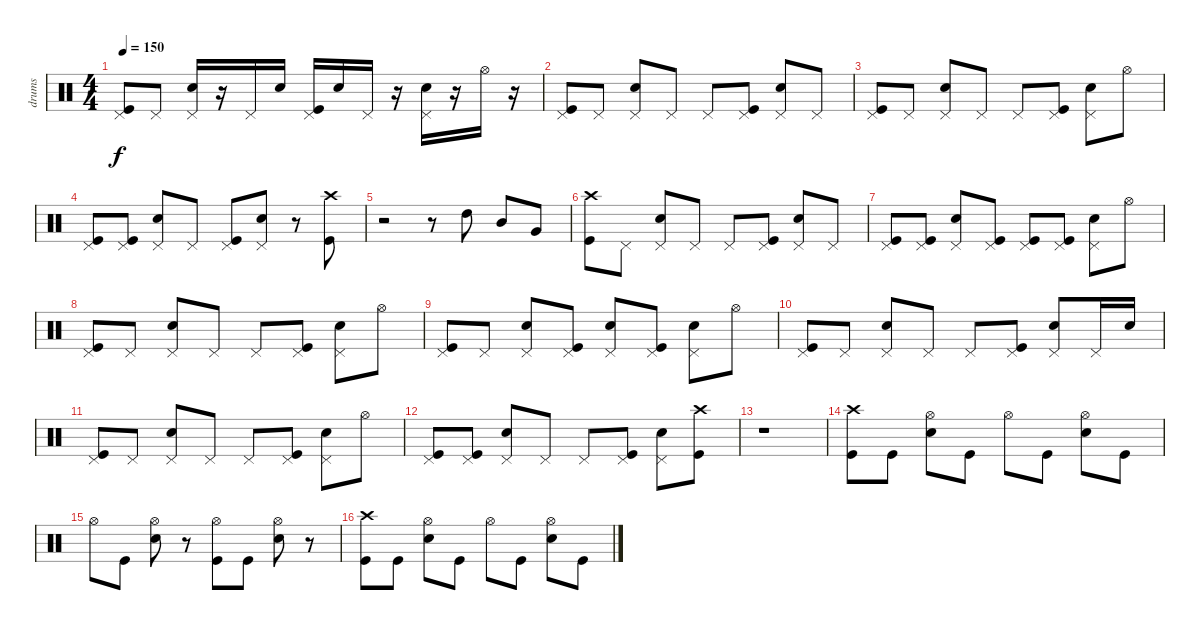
\track ("drums" "drums") {instrument percussion}
\staff {score}
\articulation defaults
\ts (4 4)
\tempo 150
\clef neutral
\ks c
("Pedal Hi-Hat (hit)" "Kick (hit)").8{dy f} "Pedal Hi-Hat (hit)".8 ("Pedal Hi-Hat (hit)" "Electric Snare (hit)").16 r.16 "Pedal Hi-Hat (hit)".16 "Electric Snare (hit)".16 ("Pedal Hi-Hat (hit)" "Kick (hit)").16 "Electric Snare (hit)".16 "Pedal Hi-Hat (hit)".16 r.16 ("Pedal Hi-Hat (hit)" "Electric Snare (hit)").16 r.16 "Hi-Hat (open)".16 r.16 |
("Pedal Hi-Hat (hit)" "Kick (hit)").8 "Pedal Hi-Hat (hit)".8 ("Pedal Hi-Hat (hit)" "Electric Snare (hit)").8 "Pedal Hi-Hat (hit)".8 "Pedal Hi-Hat (hit)".8 ("Pedal Hi-Hat (hit)" "Kick (hit)").8 ("Pedal Hi-Hat (hit)" "Electric Snare (hit)").8 "Pedal Hi-Hat (hit)".8 |
("Pedal Hi-Hat (hit)" "Kick (hit)").8 "Pedal Hi-Hat (hit)".8 ("Pedal Hi-Hat (hit)" "Electric Snare (hit)").8 "Pedal Hi-Hat (hit)".8 "Pedal Hi-Hat (hit)".8 ("Pedal Hi-Hat (hit)" "Kick (hit)").8 ("Pedal Hi-Hat (hit)" "Electric Snare (hit)").8 "Hi-Hat (open)".8 |
("Pedal Hi-Hat (hit)" "Kick (hit)").8 ("Pedal Hi-Hat (hit)" "Kick (hit)").8 ("Pedal Hi-Hat (hit)" "Electric Snare (hit)").8 "Pedal Hi-Hat (hit)".8 ("Pedal Hi-Hat (hit)" "Kick (hit)").8 ("Pedal Hi-Hat (hit)" "Electric Snare (hit)").8 r.8 ("Crash high (hit)" "Kick (hit)").8 |
r.2 r.8 "High Tom (hit)".8 "Mid Tom (hit)".8 "Very Low Tom (hit)".8 |
("Crash high (hit)" "Kick (hit)").8 "Pedal Hi-Hat (hit)".8 ("Pedal Hi-Hat (hit)" "Electric Snare (hit)").8 "Pedal Hi-Hat (hit)".8 "Pedal Hi-Hat (hit)".8 ("Pedal Hi-Hat (hit)" "Kick (hit)").8 ("Pedal Hi-Hat (hit)" "Electric Snare (hit)").8 "Pedal Hi-Hat (hit)".8 |
("Pedal Hi-Hat (hit)" "Kick (hit)").8 ("Pedal Hi-Hat (hit)" "Kick (hit)").8 ("Pedal Hi-Hat (hit)" "Electric Snare (hit)").8 ("Pedal Hi-Hat (hit)" "Kick (hit)").8 ("Pedal Hi-Hat (hit)" "Kick (hit)").8 ("Pedal Hi-Hat (hit)" "Kick (hit)").8 ("Pedal Hi-Hat (hit)" "Electric Snare (hit)").8 "Hi-Hat (open)".8 |
("Pedal Hi-Hat (hit)" "Kick (hit)").8 "Pedal Hi-Hat (hit)".8 ("Pedal Hi-Hat (hit)" "Electric Snare (hit)").8 "Pedal Hi-Hat (hit)".8 "Pedal Hi-Hat (hit)".8 ("Pedal Hi-Hat (hit)" "Kick (hit)").8 ("Pedal Hi-Hat (hit)" "Electric Snare (hit)").8 "Hi-Hat (open)".8 |
("Pedal Hi-Hat (hit)" "Kick (hit)").8 "Pedal Hi-Hat (hit)".8 ("Pedal Hi-Hat (hit)" "Electric Snare (hit)").8 ("Pedal Hi-Hat (hit)" "Kick (hit)").8 ("Pedal Hi-Hat (hit)" "Electric Snare (hit)").8 ("Pedal Hi-Hat (hit)" "Kick (hit)").8 ("Pedal Hi-Hat (hit)" "Electric Snare (hit)").8 "Hi-Hat (open)".8 |
("Pedal Hi-Hat (hit)" "Kick (hit)").8 "Pedal Hi-Hat (hit)".8 ("Pedal Hi-Hat (hit)" "Electric Snare (hit)").8 "Pedal Hi-Hat (hit)".8 "Pedal Hi-Hat (hit)".8 ("Pedal Hi-Hat (hit)" "Kick (hit)").8 ("Pedal Hi-Hat (hit)" "Electric Snare (hit)").8 "Pedal Hi-Hat (hit)".16 "Electric Snare (hit)".16 |
("Pedal Hi-Hat (hit)" "Kick (hit)").8 "Pedal Hi-Hat (hit)".8 ("Pedal Hi-Hat (hit)" "Electric Snare (hit)").8 "Pedal Hi-Hat (hit)".8 "Pedal Hi-Hat (hit)".8 ("Pedal Hi-Hat (hit)" "Kick (hit)").8 ("Pedal Hi-Hat (hit)" "Electric Snare (hit)").8 "Hi-Hat (open)".8 |
("Pedal Hi-Hat (hit)" "Kick (hit)").8 ("Pedal Hi-Hat (hit)" "Kick (hit)").8 ("Pedal Hi-Hat (hit)" "Electric Snare (hit)").8 "Pedal Hi-Hat (hit)".8 "Pedal Hi-Hat (hit)".8 ("Pedal Hi-Hat (hit)" "Kick (hit)").8 ("Pedal Hi-Hat (hit)" "Electric Snare (hit)").8 ("Crash high (hit)" "Kick (hit)").8 |
r.1 |
("Crash high (hit)" "Kick (hit)").8 "Kick (hit)".8 ("Hi-Hat (open)" "Electric Snare (hit)").8 "Kick (hit)".8 "Hi-Hat (open)".8 "Kick (hit)".8 ("Hi-Hat (open)" "Electric Snare (hit)").8 "Kick (hit)".8 |
"Hi-Hat (open)".8 "Kick (hit)".8 ("Hi-Hat (open)" "Electric Snare (hit)").8 r.8 ("Hi-Hat (open)" "Kick (hit)").8 "Kick (hit)".8 ("Hi-Hat (open)" "Electric Snare (hit)").8 r.8 |
("Crash high (hit)" "Kick (hit)").8 "Kick (hit)".8 ("Hi-Hat (open)" "Electric Snare (hit)").8 "Kick (hit)".8 "Hi-Hat (open)".8 "Kick (hit)".8 ("Hi-Hat (open)" "Electric Snare (hit)").8 "Kick (hit)".8
